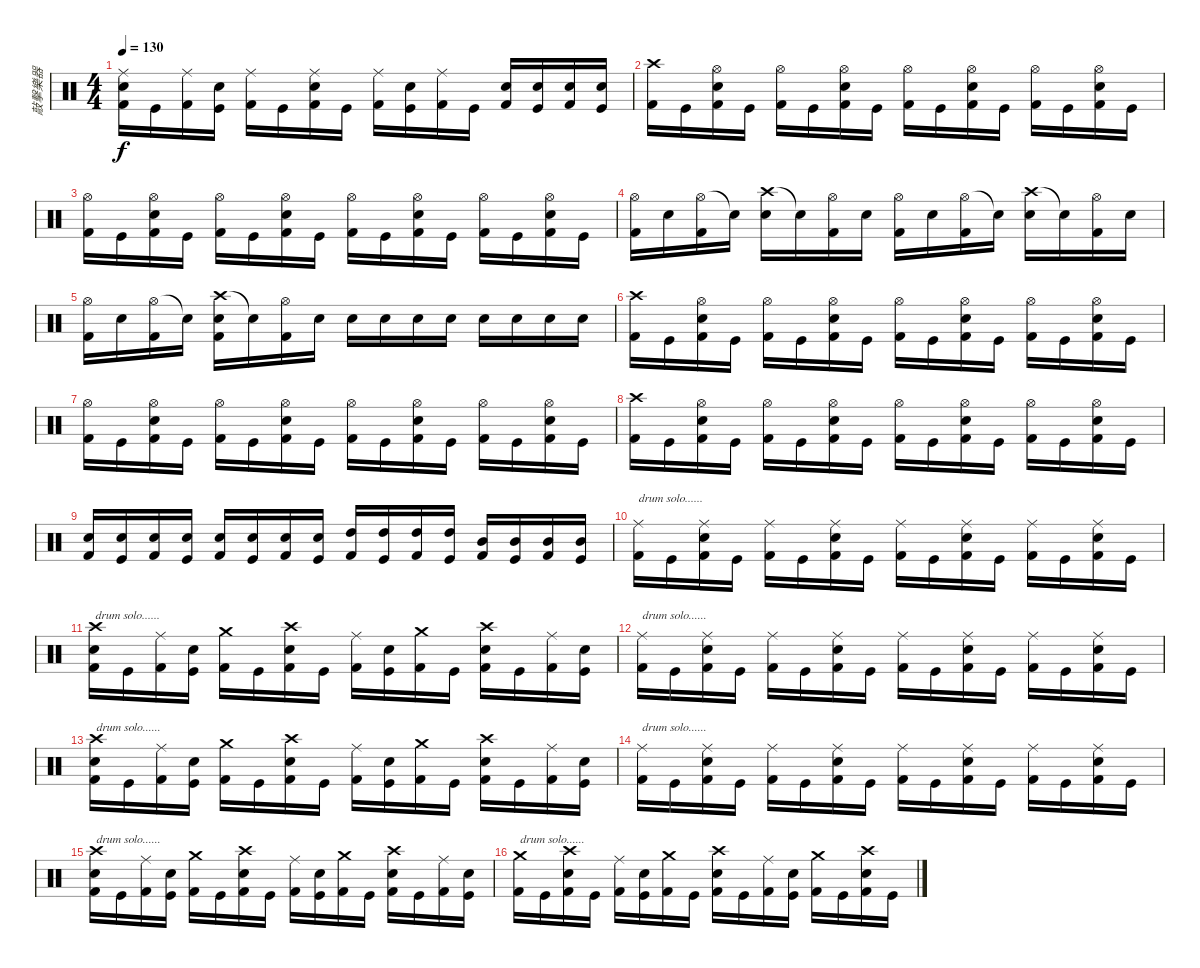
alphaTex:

\track ("敲擊樂器" "敲擊樂器") {instrument percussion}
\staff {score}
\articulation defaults
\ts (4 4)
\tempo 130
\clef neutral
\ks c
("Ride (middle)" "Snare (hit) 2" "Kick (hit) 2").16{dy f} "Kick (hit)".16 ("Ride (middle)" "Kick (hit) 2").16 ("Snare (hit) 2" "Kick (hit)").16 ("Ride (middle)" "Kick (hit) 2").16 "Kick (hit)".16 ("Ride (middle)" "Snare (hit) 2" "Kick (hit) 2").16 "Kick (hit)".16 ("Ride (middle)" "Kick (hit) 2").16 ("Snare (hit) 2" "Kick (hit)").16 ("Ride (middle)" "Kick (hit) 2").16 "Kick (hit)".16 ("Snare (hit) 2" "Kick (hit) 2").16 ("Snare (hit) 2" "Kick (hit)").16 ("Snare (hit) 2" "Kick (hit) 2").16 ("Snare (hit) 2" "Kick (hit)").16 |
("Crash high (hit)" "Kick (hit) 2").16 "Kick (hit)".16 ("Hi-Hat (open)" "Snare (hit) 2" "Kick (hit) 2").16 "Kick (hit)".16 ("Hi-Hat (open)" "Kick (hit) 2").16 "Kick (hit)".16 ("Hi-Hat (open)" "Snare (hit) 2" "Kick (hit) 2").16 "Kick (hit)".16 ("Hi-Hat (open)" "Kick (hit) 2").16 "Kick (hit)".16 ("Hi-Hat (open)" "Snare (hit) 2" "Kick (hit) 2").16 "Kick (hit)".16 ("Hi-Hat (open)" "Kick (hit) 2").16 "Kick (hit)".16 ("Hi-Hat (open)" "Snare (hit) 2" "Kick (hit) 2").16 "Kick (hit)".16 |
("Hi-Hat (open)" "Kick (hit) 2").16 "Kick (hit)".16 ("Hi-Hat (open)" "Snare (hit) 2" "Kick (hit) 2").16 "Kick (hit)".16 ("Hi-Hat (open)" "Kick (hit) 2").16 "Kick (hit)".16 ("Hi-Hat (open)" "Snare (hit) 2" "Kick (hit) 2").16 "Kick (hit)".16 ("Hi-Hat (open)" "Kick (hit) 2").16 "Kick (hit)".16 ("Hi-Hat (open)" "Snare (hit) 2" "Kick (hit) 2").16 "Kick (hit)".16 ("Hi-Hat (open)" "Kick (hit) 2").16 "Kick (hit)".16 ("Hi-Hat (open)" "Snare (hit) 2" "Kick (hit) 2").16 "Kick (hit)".16 |
("Hi-Hat (open)" "Kick (hit) 2").16 "Snare (hit) 2".16 ("Hi-Hat (open)" "Kick (hit) 2").16 "Snare (hit) 2"{t}.16 ("Crash high (hit)" "Snare (hit) 2").16 "Snare (hit)"{t}.16 ("Hi-Hat (open)" "Kick (hit) 2").16 "Snare (hit) 2".16 ("Hi-Hat (open)" "Kick (hit) 2").16 "Snare (hit) 2".16 ("Hi-Hat (open)" "Kick (hit) 2").16 "Snare (hit) 2"{t}.16 ("Crash high (hit)" "Snare (hit) 2").16 "Snare (hit)"{t}.16 ("Hi-Hat (open)" "Kick (hit) 2").16 "Snare (hit) 2".16 |
("Hi-Hat (open)" "Kick (hit) 2").16 "Snare (hit) 2".16 ("Hi-Hat (open)" "Kick (hit) 2").16 "Snare (hit)"{t}.16 ("Crash high (hit)" "Snare (hit) 2" "Kick (hit) 2").16 "Snare (hit)"{t}.16 ("Hi-Hat (open)" "Kick (hit) 2").16 "Snare (hit) 2".16 "Snare (hit) 2".16 "Snare (hit) 2".16 "Snare (hit) 2".16 "Snare (hit) 2".16 "Snare (hit) 2".16 "Snare (hit) 2".16 "Snare (hit) 2".16 "Snare (hit) 2".16 |
("Crash high (hit)" "Kick (hit) 2").16 "Kick (hit)".16 ("Hi-Hat (open)" "Snare (hit) 2" "Kick (hit) 2").16 "Kick (hit)".16 ("Hi-Hat (open)" "Kick (hit) 2").16 "Kick (hit)".16 ("Hi-Hat (open)" "Snare (hit) 2" "Kick (hit) 2").16 "Kick (hit)".16 ("Hi-Hat (open)" "Kick (hit) 2").16 "Kick (hit)".16 ("Hi-Hat (open)" "Snare (hit) 2" "Kick (hit) 2").16 "Kick (hit)".16 ("Hi-Hat (open)" "Kick (hit) 2").16 "Kick (hit)".16 ("Hi-Hat (open)" "Snare (hit) 2" "Kick (hit) 2").16 "Kick (hit)".16 |
("Hi-Hat (open)" "Kick (hit) 2").16 "Kick (hit)".16 ("Hi-Hat (open)" "Snare (hit) 2" "Kick (hit) 2").16 "Kick (hit)".16 ("Hi-Hat (open)" "Kick (hit) 2").16 "Kick (hit)".16 ("Hi-Hat (open)" "Snare (hit) 2" "Kick (hit) 2").16 "Kick (hit)".16 ("Hi-Hat (open)" "Kick (hit) 2").16 "Kick (hit)".16 ("Hi-Hat (open)" "Snare (hit) 2" "Kick (hit) 2").16 "Kick (hit)".16 ("Hi-Hat (open)" "Kick (hit) 2").16 "Kick (hit)".16 ("Hi-Hat (open)" "Snare (hit) 2" "Kick (hit) 2").16 "Kick (hit)".16 |
("Crash high (hit)" "Kick (hit) 2").16 "Kick (hit)".16 ("Hi-Hat (open)" "Snare (hit) 2" "Kick (hit) 2").16 "Kick (hit)".16 ("Hi-Hat (open)" "Kick (hit) 2").16 "Kick (hit)".16 ("Hi-Hat (open)" "Snare (hit) 2" "Kick (hit) 2").16 "Kick (hit)".16 ("Hi-Hat (open)" "Kick (hit) 2").16 "Kick (hit)".16 ("Hi-Hat (open)" "Snare (hit) 2" "Kick (hit) 2").16 "Kick (hit)".16 ("Hi-Hat (open)" "Kick (hit) 2").16 "Kick (hit)".16 ("Hi-Hat (open)" "Snare (hit) 2" "Kick (hit) 2").16 "Kick (hit)".16 |
("Snare (hit) 2" "Kick (hit) 2").16 ("Snare (hit) 2" "Kick (hit)").16 ("Snare (hit) 2" "Kick (hit) 2").16 ("Snare (hit) 2" "Kick (hit)").16 ("Snare (hit) 2" "Kick (hit) 2").16 ("Snare (hit) 2" "Kick (hit)").16 ("Snare (hit) 2" "Kick (hit) 2").16 ("Snare (hit) 2" "Kick (hit)").16 ("High Tom (hit)" "Kick (hit) 2").16 ("High Tom (hit)" "Kick (hit)").16 ("High Tom (hit)" "Kick (hit) 2").16 ("High Tom (hit)" "Kick (hit)").16 ("Mid Tom (hit)" "Kick (hit) 2").16 ("Mid Tom (hit)" "Kick (hit)").16 ("Mid Tom (hit)" "Kick (hit) 2").16 ("Mid Tom (hit)" "Kick (hit)").16 |
("Ride (middle)" "Kick (hit) 2").16{txt "drum solo......"} "Kick (hit)".16 ("Ride (middle)" "Snare (hit) 2" "Kick (hit) 2").16 "Kick (hit)".16 ("Ride (middle)" "Kick (hit) 2").16 "Kick (hit)".16 ("Ride (middle)" "Snare (hit) 2" "Kick (hit) 2").16 "Kick (hit)".16 ("Ride (middle)" "Kick (hit) 2").16 "Kick (hit)".16 ("Ride (middle)" "Snare (hit) 2" "Kick (hit) 2").16 "Kick (hit)".16 ("Ride (middle)" "Kick (hit) 2").16 "Kick (hit)".16 ("Ride (middle)" "Snare (hit) 2" "Kick (hit) 2").16 "Kick (hit)".16 |
("Crash high (hit)" "Snare (hit) 2" "Kick (hit) 2").16{txt "drum solo......"} "Kick (hit)".16 ("Ride (middle)" "Kick (hit) 2").16 ("Snare (hit) 2" "Kick (hit)").16 ("Crash medium (hit)" "Kick (hit) 2").16 "Kick (hit)".16 ("Crash high (hit)" "Snare (hit) 2" "Kick (hit) 2").16 "Kick (hit)".16 ("Ride (middle)" "Kick (hit) 2").16 ("Snare (hit) 2" "Kick (hit)").16 ("Crash medium (hit)" "Kick (hit) 2").16 "Kick (hit)".16 ("Crash high (hit)" "Snare (hit) 2" "Kick (hit) 2").16 "Kick (hit)".16 ("Ride (middle)" "Kick (hit) 2").16 ("Snare (hit) 2" "Kick (hit)").16 |
("Ride (middle)" "Kick (hit) 2").16{txt "drum solo......"} "Kick (hit)".16 ("Ride (middle)" "Snare (hit) 2" "Kick (hit) 2").16 "Kick (hit)".16 ("Ride (middle)" "Kick (hit) 2").16 "Kick (hit)".16 ("Ride (middle)" "Snare (hit) 2" "Kick (hit) 2").16 "Kick (hit)".16 ("Ride (middle)" "Kick (hit) 2").16 "Kick (hit)".16 ("Ride (middle)" "Snare (hit) 2" "Kick (hit) 2").16 "Kick (hit)".16 ("Ride (middle)" "Kick (hit) 2").16 "Kick (hit)".16 ("Ride (middle)" "Snare (hit) 2" "Kick (hit) 2").16 "Kick (hit)".16 |
("Crash high (hit)" "Snare (hit) 2" "Kick (hit) 2").16{txt "drum solo......"} "Kick (hit)".16 ("Ride (middle)" "Kick (hit) 2").16 ("Snare (hit) 2" "Kick (hit)").16 ("Crash medium (hit)" "Kick (hit) 2").16 "Kick (hit)".16 ("Crash high (hit)" "Snare (hit) 2" "Kick (hit) 2").16 "Kick (hit)".16 ("Ride (middle)" "Kick (hit) 2").16 ("Snare (hit) 2" "Kick (hit)").16 ("Crash medium (hit)" "Kick (hit) 2").16 "Kick (hit)".16 ("Crash high (hit)" "Snare (hit) 2" "Kick (hit) 2").16 "Kick (hit)".16 ("Ride (middle)" "Kick (hit) 2").16 ("Snare (hit) 2" "Kick (hit)").16 |
("Ride (middle)" "Kick (hit) 2").16{txt "drum solo......"} "Kick (hit)".16 ("Ride (middle)" "Snare (hit) 2" "Kick (hit) 2").16 "Kick (hit)".16 ("Ride (middle)" "Kick (hit) 2").16 "Kick (hit)".16 ("Ride (middle)" "Snare (hit) 2" "Kick (hit) 2").16 "Kick (hit)".16 ("Ride (middle)" "Kick (hit) 2").16 "Kick (hit)".16 ("Ride (middle)" "Snare (hit) 2" "Kick (hit) 2").16 "Kick (hit)".16 ("Ride (middle)" "Kick (hit) 2").16 "Kick (hit)".16 ("Ride (middle)" "Snare (hit) 2" "Kick (hit) 2").16 "Kick (hit)".16 |
("Crash high (hit)" "Snare (hit) 2" "Kick (hit) 2").16{txt "drum solo......"} "Kick (hit)".16 ("Ride (middle)" "Kick (hit) 2").16 ("Snare (hit) 2" "Kick (hit)").16 ("Crash medium (hit)" "Kick (hit) 2").16 "Kick (hit)".16 ("Crash high (hit)" "Snare (hit) 2" "Kick (hit) 2").16 "Kick (hit)".16 ("Ride (middle)" "Kick (hit) 2").16 ("Snare (hit) 2" "Kick (hit)").16 ("Crash medium (hit)" "Kick (hit) 2").16 "Kick (hit)".16 ("Crash high (hit)" "Snare (hit) 2" "Kick (hit) 2").16 "Kick (hit)".16 ("Ride (middle)" "Kick (hit) 2").16 ("Snare (hit) 2" "Kick (hit)").16 |
("Crash medium (hit)" "Kick (hit) 2").16{txt "drum solo......"} "Kick (hit)".16 ("Crash high (hit)" "Snare (hit) 2" "Kick (hit) 2").16 "Kick (hit)".16 ("Ride (middle)" "Kick (hit) 2").16 ("Snare (hit) 2" "Kick (hit)").16 ("Crash medium (hit)" "Kick (hit) 2").16 "Kick (hit)".16 ("Crash high (hit)" "Snare (hit) 2" "Kick (hit) 2").16 "Kick (hit)".16 ("Ride (middle)" "Kick (hit) 2").16 ("Snare (hit) 2" "Kick (hit)").16 ("Crash medium (hit)" "Kick (hit) 2").16 "Kick (hit)".16 ("Crash high (hit)" "Snare (hit) 2" "Kick (hit) 2").16 "Kick (hit)".16
